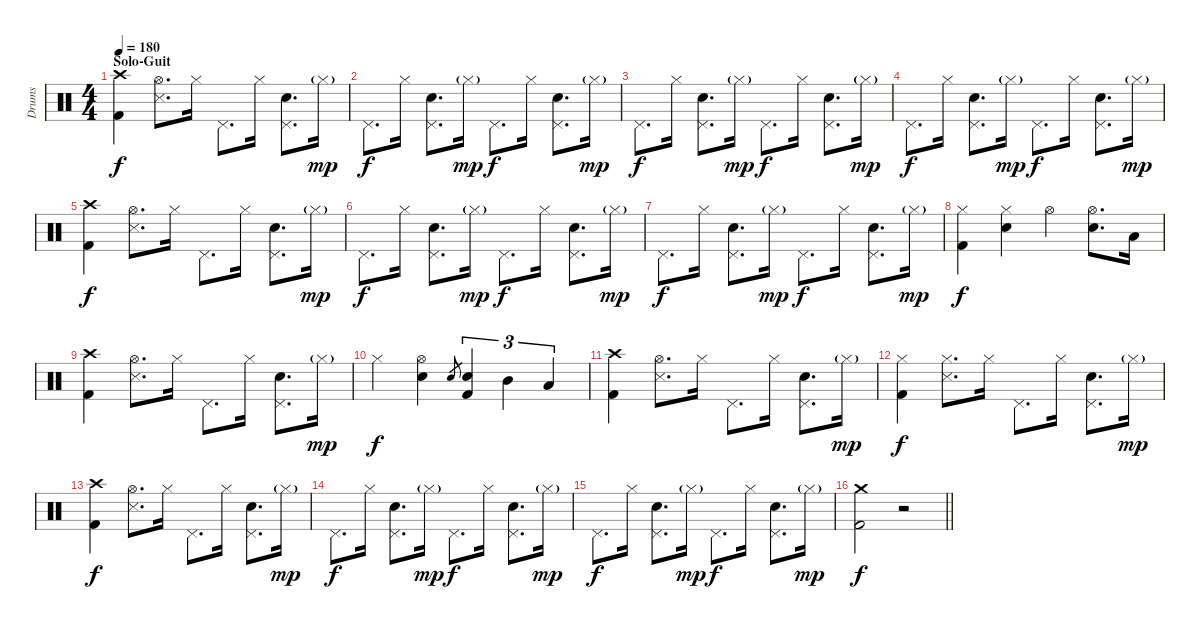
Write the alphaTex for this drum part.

\track ("Drums" "Drums") {instrument percussion}
\staff {score}
\articulation defaults
\ts (4 4)
\section ("" "Solo-Guit")
\tempo 180
\clef neutral
\ks c
("Crash high (hit)" "Kick (hit) 2").4{dy f} ("Hi-Hat (open)" "Snare (side stick) 3").8{d} "Hi-Hat (closed)".16 "Pedal Hi-Hat (hit)".8{d} "Hi-Hat (closed)".16 ("Pedal Hi-Hat (hit)" "Snare (hit) 2").8{d} "Hi-Hat (closed)"{g}.16{dy mp} |
"Pedal Hi-Hat (hit)".8{d dy f} "Hi-Hat (closed)".16 ("Pedal Hi-Hat (hit)" "Snare (hit) 2").8{d} "Hi-Hat (closed)"{g}.16{dy mp} "Pedal Hi-Hat (hit)".8{d dy f} "Hi-Hat (closed)".16 ("Pedal Hi-Hat (hit)" "Snare (hit) 2").8{d} "Hi-Hat (closed)"{g}.16{dy mp} |
"Pedal Hi-Hat (hit)".8{d dy f} "Hi-Hat (closed)".16 ("Pedal Hi-Hat (hit)" "Snare (hit) 2").8{d} "Hi-Hat (closed)"{g}.16{dy mp} "Pedal Hi-Hat (hit)".8{d dy f} "Hi-Hat (closed)".16 ("Pedal Hi-Hat (hit)" "Snare (hit) 2").8{d} "Hi-Hat (closed)"{g}.16{dy mp} |
"Pedal Hi-Hat (hit)".8{d dy f} "Hi-Hat (closed)".16 ("Pedal Hi-Hat (hit)" "Snare (hit) 2").8{d} "Hi-Hat (closed)"{g}.16{dy mp} "Pedal Hi-Hat (hit)".8{d dy f} "Hi-Hat (closed)".16 ("Pedal Hi-Hat (hit)" "Snare (hit) 2").8{d} "Hi-Hat (closed)"{g}.16{dy mp} |
("Crash high (hit)" "Kick (hit) 2").4{dy f} ("Hi-Hat (open)" "Snare (side stick) 3").8{d} "Hi-Hat (closed)".16 "Pedal Hi-Hat (hit)".8{d} "Hi-Hat (closed)".16 ("Pedal Hi-Hat (hit)" "Snare (hit) 2").8{d} "Hi-Hat (closed)"{g}.16{dy mp} |
"Pedal Hi-Hat (hit)".8{d dy f} "Hi-Hat (closed)".16 ("Pedal Hi-Hat (hit)" "Snare (hit) 2").8{d} "Hi-Hat (closed)"{g}.16{dy mp} "Pedal Hi-Hat (hit)".8{d dy f} "Hi-Hat (closed)".16 ("Pedal Hi-Hat (hit)" "Snare (hit) 2").8{d} "Hi-Hat (closed)"{g}.16{dy mp} |
"Pedal Hi-Hat (hit)".8{d dy f} "Hi-Hat (closed)".16 ("Pedal Hi-Hat (hit)" "Snare (hit) 2").8{d} "Hi-Hat (closed)"{g}.16{dy mp} "Pedal Hi-Hat (hit)".8{d dy f} "Hi-Hat (closed)".16 ("Pedal Hi-Hat (hit)" "Snare (hit) 2").8{d} "Hi-Hat (closed)"{g}.16{dy mp} |
("Hi-Hat (closed)" "Kick (hit) 2").4{dy f} ("Hi-Hat (closed)" "Snare (hit) 2").4 "Hi-Hat (open)".4 ("Hi-Hat (open)" "Snare (hit) 2").8{d} "Low Tom (hit)".16 |
("Crash high (hit)" "Kick (hit) 2").4 ("Hi-Hat (open)" "Snare (side stick) 3").8{d} "Hi-Hat (closed)".16 "Pedal Hi-Hat (hit)".8{d} "Hi-Hat (closed)".16 ("Pedal Hi-Hat (hit)" "Snare (hit) 2").8{d} "Hi-Hat (closed)"{g}.16{dy mp} |
"Hi-Hat (closed)".4{dy f} ("Hi-Hat (open)" "Snare (hit) 2").4 "Snare (hit) 2".8{gr} ("Snare (hit) 2" "Kick (hit) 2").4{tu (3 2)} "Mid Tom (hit)".4{tu (3 2)} "Low Tom (hit)".4{tu (3 2)} |
("Crash high (hit)" "Kick (hit) 2").4 ("Hi-Hat (open)" "Snare (side stick) 3").8{d} "Hi-Hat (closed)".16 "Pedal Hi-Hat (hit)".8{d} "Hi-Hat (closed)".16 ("Pedal Hi-Hat (hit)" "Snare (hit) 2").8{d} "Hi-Hat (closed)"{g}.16{dy mp} |
("Hi-Hat (closed)" "Kick (hit) 2").4{dy f} ("Hi-Hat (closed)" "Snare (side stick) 3").8{d} "Hi-Hat (closed)".16 "Pedal Hi-Hat (hit)".8{d} "Hi-Hat (closed)".16 ("Pedal Hi-Hat (hit)" "Snare (hit) 2").8{d} "Hi-Hat (closed)"{g}.16{dy mp} |
("Crash high (hit)" "Kick (hit) 2").4{dy f} ("Hi-Hat (open)" "Snare (side stick) 3").8{d} "Hi-Hat (closed)".16 "Pedal Hi-Hat (hit)".8{d} "Hi-Hat (closed)".16 ("Pedal Hi-Hat (hit)" "Snare (hit) 2").8{d} "Hi-Hat (closed)"{g}.16{dy mp} |
"Pedal Hi-Hat (hit)".8{d dy f} "Hi-Hat (closed)".16 ("Pedal Hi-Hat (hit)" "Snare (hit) 2").8{d} "Hi-Hat (closed)"{g}.16{dy mp} "Pedal Hi-Hat (hit)".8{d dy f} "Hi-Hat (closed)".16 ("Pedal Hi-Hat (hit)" "Snare (hit) 2").8{d} "Hi-Hat (closed)"{g}.16{dy mp} |
"Pedal Hi-Hat (hit)".8{d dy f} "Hi-Hat (closed)".16 ("Pedal Hi-Hat (hit)" "Snare (hit) 2").8{d} "Hi-Hat (closed)"{g}.16{dy mp} "Pedal Hi-Hat (hit)".8{d dy f} "Hi-Hat (closed)".16 ("Pedal Hi-Hat (hit)" "Snare (hit) 2").8{d} "Hi-Hat (closed)"{g}.16{dy mp} |
\barLineRight lightlight
("Crash medium (hit)" "Kick (hit) 2").2{dy f} r.2
